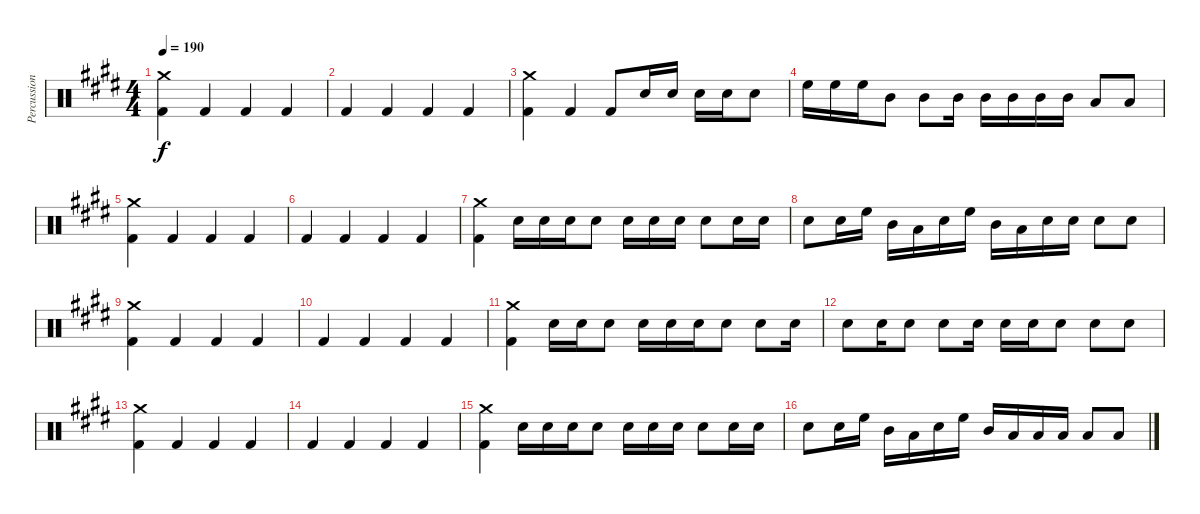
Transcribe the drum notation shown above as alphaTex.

\track ("Percussion" "Percussion") {instrument percussion}
\staff {score}
\articulation defaults
\ts (4 4)
\tempo 190
\clef neutral
\ks e
("Crash medium (hit)" "Kick (hit) 2").4{dy f} "Kick (hit) 2".4 "Kick (hit) 2".4 "Kick (hit) 2".4 |
"Kick (hit) 2".4 "Kick (hit) 2".4 "Kick (hit) 2".4 "Kick (hit) 2".4 |
("Crash medium (hit)" "Kick (hit) 2").4 "Kick (hit) 2".4 "Kick (hit) 2".8 "Snare (hit) 2".16 "Snare (hit) 2".16 "Snare (hit) 2".16 "Snare (hit) 2".16 "Snare (hit) 2".8 |
"High Floor Tom (hit)".16 "High Floor Tom (hit)".16 "High Floor Tom (hit)".16 "Mid Tom (hit)".8 "Mid Tom (hit)".8 "Mid Tom (hit)".16 "Mid Tom (hit)".16 "Mid Tom (hit)".16 "Mid Tom (hit)".16 "Mid Tom (hit)".16 "Low Floor Tom (hit)".8 "Low Floor Tom (hit)".8 |
("Crash medium (hit)" "Kick (hit) 2").4 "Kick (hit) 2".4 "Kick (hit) 2".4 "Kick (hit) 2".4 |
"Kick (hit) 2".4 "Kick (hit) 2".4 "Kick (hit) 2".4 "Kick (hit) 2".4 |
("Crash medium (hit)" "Kick (hit) 2").4 "Snare (hit) 2".16 "Snare (hit) 2".16 "Snare (hit) 2".16 "Snare (hit) 2".8 "Snare (hit) 2".16 "Snare (hit) 2".16 "Snare (hit) 2".16 "Snare (hit) 2".8 "Snare (hit) 2".16 "Snare (hit) 2".16 |
"Snare (hit) 2".8 "Snare (hit) 2".16 "High Floor Tom (hit)".16 "Mid Tom (hit)".16 "Low Floor Tom (hit)".16 "Snare (hit) 2".16 "High Floor Tom (hit)".16 "Mid Tom (hit)".16 "Low Floor Tom (hit)".16 "Snare (hit) 2".16 "Snare (hit) 2".16 "Snare (hit) 2".8 "Snare (hit) 2".8 |
("Crash medium (hit)" "Kick (hit) 2").4 "Kick (hit) 2".4 "Kick (hit) 2".4 "Kick (hit) 2".4 |
"Kick (hit) 2".4 "Kick (hit) 2".4 "Kick (hit) 2".4 "Kick (hit) 2".4 |
("Crash medium (hit)" "Kick (hit) 2").4 "Snare (hit) 2".16 "Snare (hit) 2".16 "Snare (hit) 2".8 "Snare (hit) 2".16 "Snare (hit) 2".16 "Snare (hit) 2".16 "Snare (hit) 2".8 "Snare (hit) 2".8 "Snare (hit) 2".16 |
"Snare (hit) 2".8 "Snare (hit) 2".16 "Snare (hit) 2".8 "Snare (hit) 2".8 "Snare (hit) 2".16 "Snare (hit) 2".16 "Snare (hit) 2".16 "Snare (hit) 2".8 "Snare (hit) 2".8 "Snare (hit) 2".8 |
("Crash medium (hit)" "Kick (hit) 2").4 "Kick (hit) 2".4 "Kick (hit) 2".4 "Kick (hit) 2".4 |
"Kick (hit) 2".4 "Kick (hit) 2".4 "Kick (hit) 2".4 "Kick (hit) 2".4 |
("Crash medium (hit)" "Kick (hit) 2").4 "Snare (hit) 2".16 "Snare (hit) 2".16 "Snare (hit) 2".16 "Snare (hit) 2".8 "Snare (hit) 2".16 "Snare (hit) 2".16 "Snare (hit) 2".16 "Snare (hit) 2".8 "Snare (hit) 2".16 "Snare (hit) 2".16 |
"Snare (hit) 2".8 "Snare (hit) 2".16 "High Floor Tom (hit)".16 "Mid Tom (hit)".16 "Low Floor Tom (hit)".16 "Snare (hit) 2".16 "High Floor Tom (hit)".16 "Mid Tom (hit)".16 "Low Floor Tom (hit)".16 "Low Floor Tom (hit)".16 "Low Floor Tom (hit)".16 "Low Floor Tom (hit)".8 "Low Floor Tom (hit)".8
